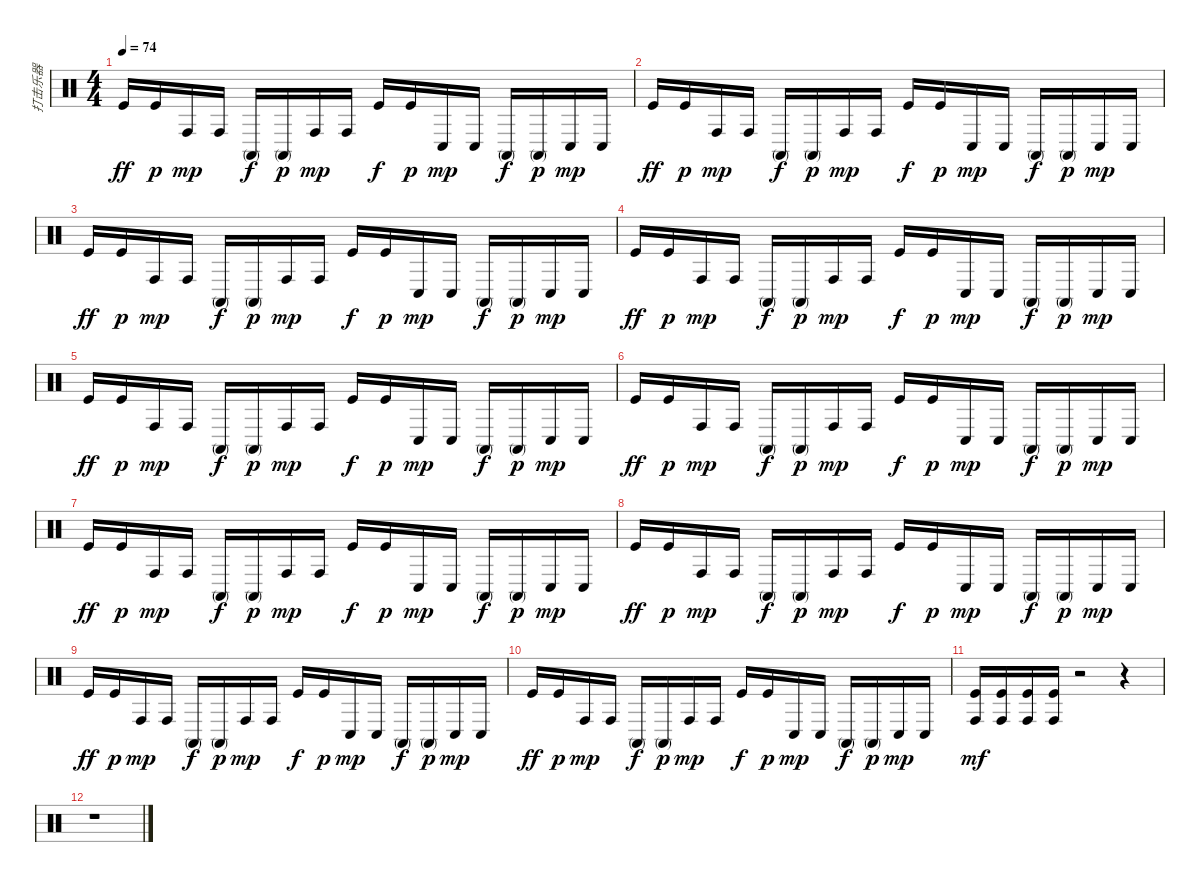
\track ("打击乐器" "打击乐器") {instrument percussion}
\staff {score}
\articulation defaults
\ts (4 4)
\tempo 74
\clef neutral
\ks c "Kick (hit)".16{dy ff} "Kick (hit)".16{dy p} "Conga high (hit)".16{dy mp} "Conga high (hit)".16 "Conga high (mute)".16{dy f} "Conga high (mute)".16{dy p} "Conga high (hit)".16{dy mp} "Conga high (hit)".16 "Kick (hit)".16{dy f} "Kick (hit)".16{dy p} "Conga low (hit)".16{dy mp} "Conga low (hit)".16 "Conga high (mute)".16{dy f} "Conga high (mute)".16{dy p} "Conga low (hit)".16{dy mp} "Conga low (hit)".16
|
"Kick (hit)".16{dy ff} "Kick (hit)".16{dy p} "Conga high (hit)".16{dy mp} "Conga high (hit)".16 "Conga high (mute)".16{dy f} "Conga high (mute)".16{dy p} "Conga high (hit)".16{dy mp} "Conga high (hit)".16 "Kick (hit)".16{dy f} "Kick (hit)".16{dy p} "Conga low (hit)".16{dy mp} "Conga low (hit)".16 "Conga high (mute)".16{dy f} "Conga high (mute)".16{dy p} "Conga low (hit)".16{dy mp} "Conga low (hit)".16 |
"Kick (hit)".16{dy ff} "Kick (hit)".16{dy p} "Conga high (hit)".16{dy mp} "Conga high (hit)".16 "Conga high (mute)".16{dy f} "Conga high (mute)".16{dy p} "Conga high (hit)".16{dy mp} "Conga high (hit)".16 "Kick (hit)".16{dy f} "Kick (hit)".16{dy p} "Conga low (hit)".16{dy mp} "Conga low (hit)".16 "Conga high (mute)".16{dy f} "Conga high (mute)".16{dy p} "Conga low (hit)".16{dy mp} "Conga low (hit)".16 |
"Kick (hit)".16{dy ff} "Kick (hit)".16{dy p} "Conga high (hit)".16{dy mp} "Conga high (hit)".16 "Conga high (mute)".16{dy f} "Conga high (mute)".16{dy p} "Conga high (hit)".16{dy mp} "Conga high (hit)".16 "Kick (hit)".16{dy f} "Kick (hit)".16{dy p} "Conga low (hit)".16{dy mp} "Conga low (hit)".16 "Conga high (mute)".16{dy f} "Conga high (mute)".16{dy p} "Conga low (hit)".16{dy mp} "Conga low (hit)".16 |
"Kick (hit)".16{dy ff} "Kick (hit)".16{dy p} "Conga high (hit)".16{dy mp} "Conga high (hit)".16 "Conga high (mute)".16{dy f} "Conga high (mute)".16{dy p} "Conga high (hit)".16{dy mp} "Conga high (hit)".16 "Kick (hit)".16{dy f} "Kick (hit)".16{dy p} "Conga low (hit)".16{dy mp} "Conga low (hit)".16 "Conga high (mute)".16{dy f} "Conga high (mute)".16{dy p} "Conga low (hit)".16{dy mp} "Conga low (hit)".16 |
"Kick (hit)".16{dy ff} "Kick (hit)".16{dy p} "Conga high (hit)".16{dy mp} "Conga high (hit)".16 "Conga high (mute)".16{dy f} "Conga high (mute)".16{dy p} "Conga high (hit)".16{dy mp} "Conga high (hit)".16 "Kick (hit)".16{dy f} "Kick (hit)".16{dy p} "Conga low (hit)".16{dy mp} "Conga low (hit)".16 "Conga high (mute)".16{dy f} "Conga high (mute)".16{dy p} "Conga low (hit)".16{dy mp} "Conga low (hit)".16 |
"Kick (hit)".16{dy ff} "Kick (hit)".16{dy p} "Conga high (hit)".16{dy mp} "Conga high (hit)".16 "Conga high (mute)".16{dy f} "Conga high (mute)".16{dy p} "Conga high (hit)".16{dy mp} "Conga high (hit)".16 "Kick (hit)".16{dy f} "Kick (hit)".16{dy p} "Conga low (hit)".16{dy mp} "Conga low (hit)".16 "Conga high (mute)".16{dy f} "Conga high (mute)".16{dy p} "Conga low (hit)".16{dy mp} "Conga low (hit)".16 |
"Kick (hit)".16{dy ff} "Kick (hit)".16{dy p} "Conga high (hit)".16{dy mp} "Conga high (hit)".16 "Conga high (mute)".16{dy f} "Conga high (mute)".16{dy p} "Conga high (hit)".16{dy mp} "Conga high (hit)".16 "Kick (hit)".16{dy f} "Kick (hit)".16{dy p} "Conga low (hit)".16{dy mp} "Conga low (hit)".16 "Conga high (mute)".16{dy f} "Conga high (mute)".16{dy p} "Conga low (hit)".16{dy mp} "Conga low (hit)".16 |
"Kick (hit)".16{dy ff} "Kick (hit)".16{dy p} "Conga high (hit)".16{dy mp} "Conga high (hit)".16 "Conga high (mute)".16{dy f} "Conga high (mute)".16{dy p} "Conga high (hit)".16{dy mp} "Conga high (hit)".16 "Kick (hit)".16{dy f} "Kick (hit)".16{dy p} "Conga low (hit)".16{dy mp} "Conga low (hit)".16 "Conga high (mute)".16{dy f} "Conga high (mute)".16{dy p} "Conga low (hit)".16{dy mp} "Conga low (hit)".16 |
"Kick (hit)".16{dy ff} "Kick (hit)".16{dy p} "Conga high (hit)".16{dy mp} "Conga high (hit)".16 "Conga high (mute)".16{dy f} "Conga high (mute)".16{dy p} "Conga high (hit)".16{dy mp} "Conga high (hit)".16 "Kick (hit)".16{dy f} "Kick (hit)".16{dy p} "Conga low (hit)".16{dy mp} "Conga low (hit)".16 "Conga high (mute)".16{dy f} "Conga high (mute)".16{dy p} "Conga low (hit)".16{dy mp} "Conga low (hit)".16 |
("Kick (hit)" "Conga high (hit)").16{dy mf} ("Kick (hit)" "Conga high (hit)").16 ("Kick (hit)" "Conga high (hit)").16 ("Kick (hit)" "Conga high (hit)").16 r.2 r.4 |
r.1
